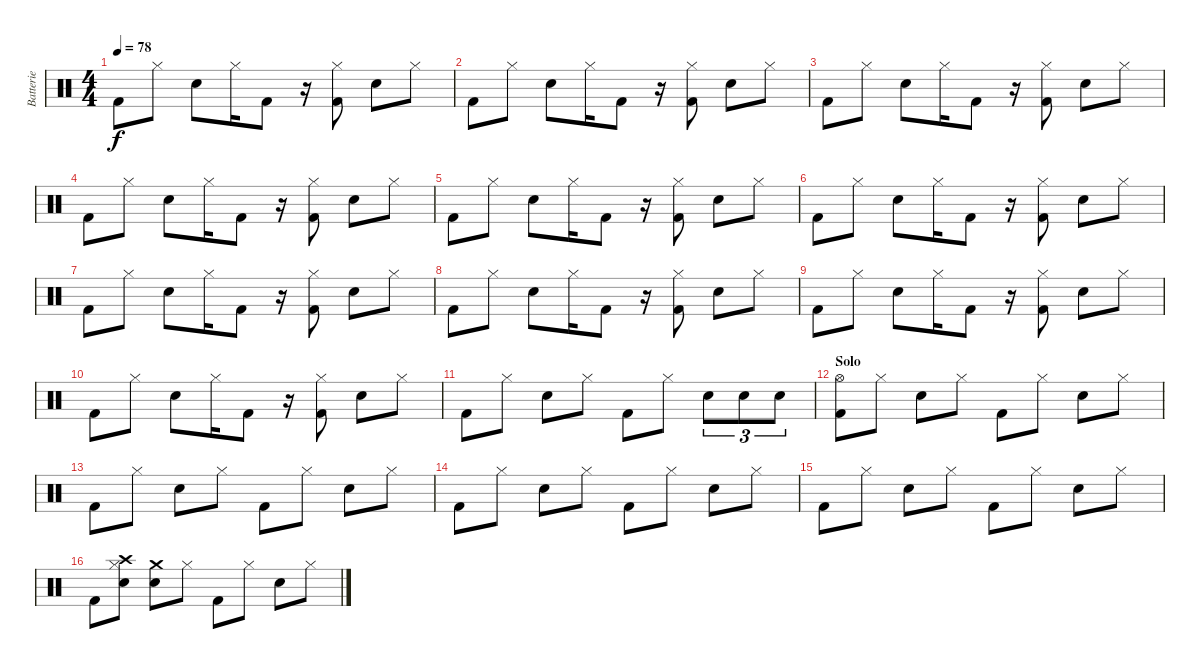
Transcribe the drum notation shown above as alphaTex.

\track ("Batterie" "Batterie") {instrument percussion}
\staff {score}
\articulation defaults
\ts (4 4)
\tempo 78
\clef neutral
\ks c "Kick (hit) 2".8{dy f} "Hi-Hat (closed)".8 "Electric Snare (hit)".8 "Hi-Hat (closed)".16 "Kick (hit) 2".8
r.16 ("Hi-Hat (closed)" "Kick (hit) 2").8 "Electric Snare (hit)".8 "Hi-Hat (closed)".8 |
"Kick (hit) 2".8 "Hi-Hat (closed)".8 "Electric Snare (hit)".8 "Hi-Hat (closed)".16 "Kick (hit) 2".8 r.16 ("Hi-Hat (closed)" "Kick (hit) 2").8 "Electric Snare (hit)".8 "Hi-Hat (closed)".8 |
"Kick (hit) 2".8 "Hi-Hat (closed)".8 "Electric Snare (hit)".8 "Hi-Hat (closed)".16 "Kick (hit) 2".8 r.16 ("Hi-Hat (closed)" "Kick (hit) 2").8 "Electric Snare (hit)".8 "Hi-Hat (closed)".8 |
"Kick (hit) 2".8 "Hi-Hat (closed)".8 "Electric Snare (hit)".8 "Hi-Hat (closed)".16 "Kick (hit) 2".8 r.16 ("Hi-Hat (closed)" "Kick (hit) 2").8 "Electric Snare (hit)".8 "Hi-Hat (closed)".8 |
"Kick (hit) 2".8 "Hi-Hat (closed)".8 "Electric Snare (hit)".8 "Hi-Hat (closed)".16 "Kick (hit) 2".8 r.16 ("Hi-Hat (closed)" "Kick (hit) 2").8 "Electric Snare (hit)".8 "Hi-Hat (closed)".8 |
"Kick (hit) 2".8 "Hi-Hat (closed)".8 "Electric Snare (hit)".8 "Hi-Hat (closed)".16 "Kick (hit) 2".8 r.16 ("Hi-Hat (closed)" "Kick (hit) 2").8 "Electric Snare (hit)".8 "Hi-Hat (closed)".8 |
"Kick (hit) 2".8 "Hi-Hat (closed)".8 "Electric Snare (hit)".8 "Hi-Hat (closed)".16 "Kick (hit) 2".8 r.16 ("Hi-Hat (closed)" "Kick (hit) 2").8 "Electric Snare (hit)".8 "Hi-Hat (closed)".8 |
"Kick (hit) 2".8 "Hi-Hat (closed)".8 "Electric Snare (hit)".8 "Hi-Hat (closed)".16 "Kick (hit) 2".8 r.16 ("Hi-Hat (closed)" "Kick (hit) 2").8 "Electric Snare (hit)".8 "Hi-Hat (closed)".8 |
"Kick (hit) 2".8 "Hi-Hat (closed)".8 "Electric Snare (hit)".8 "Hi-Hat (closed)".16 "Kick (hit) 2".8 r.16 ("Hi-Hat (closed)" "Kick (hit) 2").8 "Electric Snare (hit)".8 "Hi-Hat (closed)".8 |
"Kick (hit) 2".8 "Hi-Hat (closed)".8 "Electric Snare (hit)".8 "Hi-Hat (closed)".16 "Kick (hit) 2".8 r.16 ("Hi-Hat (closed)" "Kick (hit) 2").8 "Electric Snare (hit)".8 "Hi-Hat (closed)".8 |
"Kick (hit) 2".8 "Hi-Hat (closed)".8 "Electric Snare (hit)".8 "Hi-Hat (closed)".8 "Kick (hit) 2".8 "Hi-Hat (closed)".8 "Electric Snare (hit)".8{tu (3 2)} "Electric Snare (hit)".8{tu (3 2)} "Electric Snare (hit)".8{tu (3 2)} |
\section ("" "Solo")
("Hi-Hat (open)" "Kick (hit) 2").8 "Hi-Hat (closed)".8 "Electric Snare (hit)".8 "Hi-Hat (closed)".8 "Kick (hit) 2".8 "Hi-Hat (closed)".8 "Electric Snare (hit)".8 "Hi-Hat (closed)".8 |
"Kick (hit) 2".8 "Hi-Hat (closed)".8 "Electric Snare (hit)".8 "Hi-Hat (closed)".8 "Kick (hit) 2".8 "Hi-Hat (closed)".8 "Electric Snare (hit)".8 "Hi-Hat (closed)".8 |
"Kick (hit) 2".8 "Hi-Hat (closed)".8 "Electric Snare (hit)".8 "Hi-Hat (closed)".8 "Kick (hit) 2".8 "Hi-Hat (closed)".8 "Electric Snare (hit)".8 "Hi-Hat (closed)".8 |
"Kick (hit) 2".8 "Hi-Hat (closed)".8 "Electric Snare (hit)".8 "Hi-Hat (closed)".8 "Kick (hit) 2".8 "Hi-Hat (closed)".8 "Electric Snare (hit)".8 "Hi-Hat (closed)".8 |
"Kick (hit) 2".8 ("Crash high (hit)" "Electric Snare (hit)" "Hi-Hat (closed)").8 ("Crash medium (hit)" "Electric Snare (hit)").8 "Hi-Hat (closed)".8 "Kick (hit) 2".8 "Hi-Hat (closed)".8 "Electric Snare (hit)".8 "Hi-Hat (closed)".8
